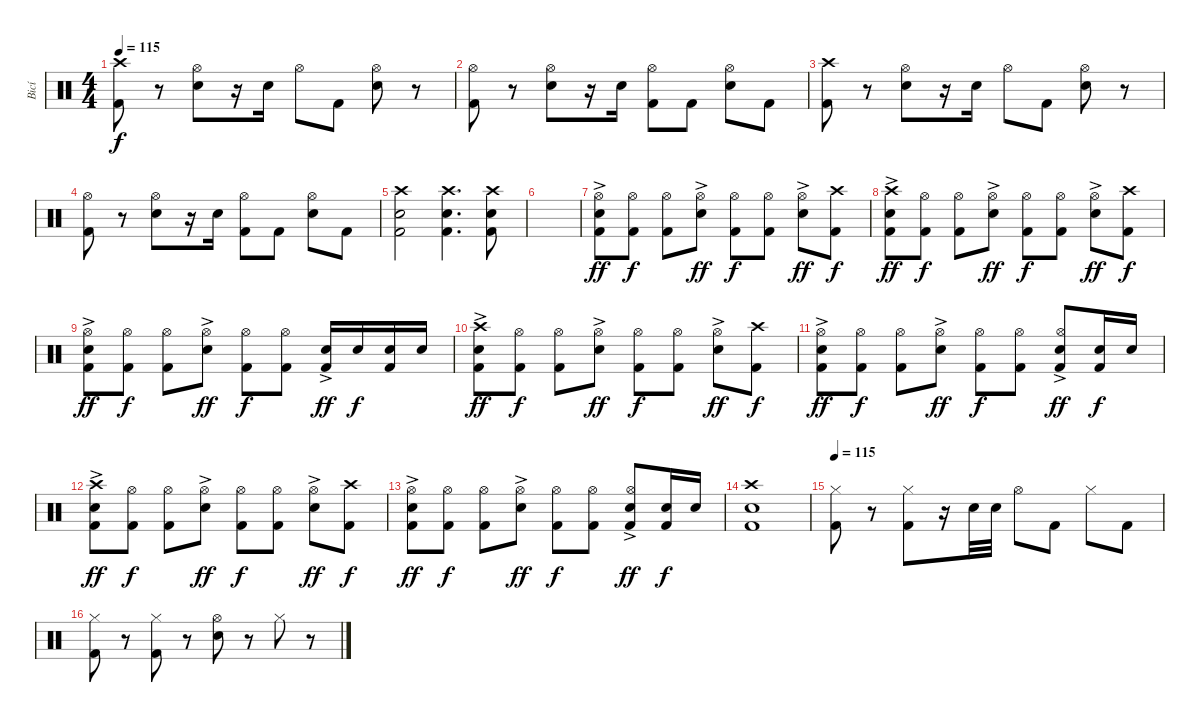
\track ("Bicí" "Bicí") {instrument percussion}
\staff {score}
\articulation defaults
\ts (4 4)
\tempo 115
\clef neutral
\ks c
("Crash high (hit)" "Kick (hit) 2").8{dy f} r.8 ("Hi-Hat (open)" "Snare (hit) 2").8 r.16 "Snare (hit) 2".16 "Hi-Hat (open)".8 "Kick (hit) 2".8 ("Hi-Hat (open)" "Snare (hit) 2").8 r.8 |
("Hi-Hat (open)" "Kick (hit) 2").8 r.8 ("Hi-Hat (open)" "Snare (hit) 2").8 r.16 "Snare (hit) 2".16 ("Hi-Hat (open)" "Kick (hit) 2").8 "Kick (hit) 2".8 ("Hi-Hat (open)" "Snare (hit) 2").8 "Kick (hit) 2".8 |
("Crash high (hit)" "Kick (hit) 2").8 r.8 ("Hi-Hat (open)" "Snare (hit) 2").8 r.16 "Snare (hit) 2".16 "Hi-Hat (open)".8 "Kick (hit) 2".8 ("Hi-Hat (open)" "Snare (hit) 2").8 r.8 |
("Hi-Hat (open)" "Kick (hit) 2").8 r.8 ("Hi-Hat (open)" "Snare (hit) 2").8 r.16 "Snare (hit) 2".16 ("Hi-Hat (open)" "Kick (hit) 2").8 "Kick (hit) 2".8 ("Hi-Hat (open)" "Snare (hit) 2").8 "Kick (hit) 2".8 |
("Crash high (hit)" "Snare (hit) 2" "Kick (hit) 2").2 ("Crash high (hit)" "Snare (hit) 2" "Kick (hit) 2").4{d} ("Crash high (hit)" "Snare (hit) 2" "Kick (hit) 2").8 |
|
("Hi-Hat (open)" "Electric Snare (hit)"{ac} "Kick (hit) 2").8{dy ff} ("Hi-Hat (open)" "Kick (hit) 2").8{dy f} ("Hi-Hat (open)" "Kick (hit) 2").8 ("Hi-Hat (open)" "Electric Snare (hit)"{ac}).8{dy ff} ("Hi-Hat (open)" "Kick (hit) 2").8{dy f} ("Hi-Hat (open)" "Kick (hit) 2").8 ("Hi-Hat (open)" "Electric Snare (hit)"{ac}).8{dy ff} ("Crash high (hit)" "Kick (hit) 2").8{dy f} |
("Crash high (hit)" "Electric Snare (hit)"{ac} "Kick (hit) 2").8{dy ff} ("Hi-Hat (open)" "Kick (hit) 2").8{dy f} ("Hi-Hat (open)" "Kick (hit) 2").8 ("Hi-Hat (open)" "Electric Snare (hit)"{ac}).8{dy ff} ("Hi-Hat (open)" "Kick (hit) 2").8{dy f} ("Hi-Hat (open)" "Kick (hit) 2").8 ("Hi-Hat (open)" "Electric Snare (hit)"{ac}).8{dy ff} ("Crash high (hit)" "Kick (hit) 2").8{dy f} |
("Hi-Hat (open)" "Electric Snare (hit)"{ac} "Kick (hit) 2").8{dy ff} ("Hi-Hat (open)" "Kick (hit) 2").8{dy f} ("Hi-Hat (open)" "Kick (hit) 2").8 ("Hi-Hat (open)" "Electric Snare (hit)"{ac}).8{dy ff} ("Hi-Hat (open)" "Kick (hit) 2").8{dy f} ("Hi-Hat (open)" "Kick (hit) 2").8 ("Electric Snare (hit)"{ac} "Kick (hit) 2").16{dy ff} "Electric Snare (hit)".16{dy f} ("Electric Snare (hit)" "Kick (hit) 2").16 "Electric Snare (hit)".16 |
("Crash high (hit)" "Electric Snare (hit)"{ac} "Kick (hit) 2").8{dy ff} ("Hi-Hat (open)" "Kick (hit) 2").8{dy f} ("Hi-Hat (open)" "Kick (hit) 2").8 ("Hi-Hat (open)" "Electric Snare (hit)"{ac}).8{dy ff} ("Hi-Hat (open)" "Kick (hit) 2").8{dy f} ("Hi-Hat (open)" "Kick (hit) 2").8 ("Hi-Hat (open)" "Electric Snare (hit)"{ac}).8{dy ff} ("Crash high (hit)" "Kick (hit) 2").8{dy f} |
("Hi-Hat (open)" "Electric Snare (hit)"{ac} "Kick (hit) 2").8{dy ff} ("Hi-Hat (open)" "Kick (hit) 2").8{dy f} ("Hi-Hat (open)" "Kick (hit) 2").8 ("Hi-Hat (open)" "Electric Snare (hit)"{ac}).8{dy ff} ("Hi-Hat (open)" "Kick (hit) 2").8{dy f} ("Hi-Hat (open)" "Kick (hit) 2").8 ("Hi-Hat (open)" "Electric Snare (hit)"{ac} "Kick (hit) 2").8{dy ff} ("Electric Snare (hit)" "Kick (hit) 2").16{dy f} "Electric Snare (hit)".16 |
("Crash high (hit)" "Electric Snare (hit)"{ac} "Kick (hit) 2").8{dy ff} ("Hi-Hat (open)" "Kick (hit) 2").8{dy f} ("Hi-Hat (open)" "Kick (hit) 2").8 ("Hi-Hat (open)" "Electric Snare (hit)"{ac}).8{dy ff} ("Hi-Hat (open)" "Kick (hit) 2").8{dy f} ("Hi-Hat (open)" "Kick (hit) 2").8 ("Hi-Hat (open)" "Electric Snare (hit)"{ac}).8{dy ff} ("Crash high (hit)" "Kick (hit) 2").8{dy f} |
("Hi-Hat (open)" "Electric Snare (hit)"{ac} "Kick (hit) 2").8{dy ff} ("Hi-Hat (open)" "Kick (hit) 2").8{dy f} ("Hi-Hat (open)" "Kick (hit) 2").8 ("Hi-Hat (open)" "Electric Snare (hit)"{ac}).8{dy ff} ("Hi-Hat (open)" "Kick (hit) 2").8{dy f} ("Hi-Hat (open)" "Kick (hit) 2").8 ("Hi-Hat (open)" "Electric Snare (hit)"{ac} "Kick (hit) 2").8{dy ff} ("Electric Snare (hit)" "Kick (hit) 2").16{dy f} "Electric Snare (hit)".16 |
("Crash high (hit)" "Snare (hit) 2" "Kick (hit) 2").1 |
\tempo 115
("Hi-Hat (closed)" "Kick (hit) 2").8 r.8 ("Hi-Hat (closed)" "Kick (hit) 2").8 r.16 "Snare (hit) 2".32 "Snare (hit) 2".32 "Hi-Hat (open)".8 "Kick (hit) 2".8 "Hi-Hat (closed)".8 "Kick (hit) 2".8 |
("Hi-Hat (closed)" "Kick (hit) 2").8 r.8 ("Hi-Hat (closed)" "Kick (hit) 2").8 r.8 ("Hi-Hat (open)" "Snare (hit) 2").8 r.8 "Hi-Hat (closed)".8 r.8
